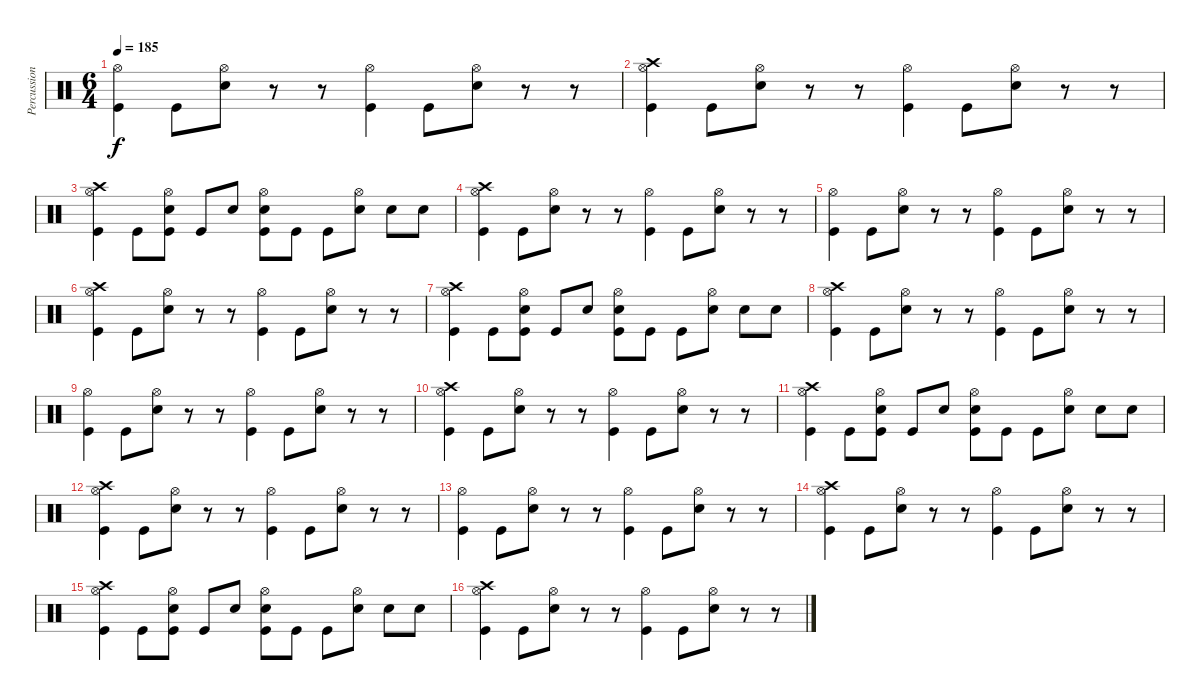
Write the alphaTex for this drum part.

\track ("Percussion" "Percussion") {instrument percussion}
\staff {score}
\articulation defaults
\ts (6 4)
\tempo 185
\clef neutral
\ks c
("Hi-Hat (open)" "Kick (hit)").4{dy f} "Kick (hit)".8 ("Hi-Hat (open)" "Electric Snare (hit)").8 r.8 r.8 ("Hi-Hat (open)" "Kick (hit)").4 "Kick (hit)".8 ("Hi-Hat (open)" "Electric Snare (hit)").8 r.8 r.8 |
("Crash high (hit)" "Hi-Hat (open)" "Kick (hit)").4 "Kick (hit)".8 ("Hi-Hat (open)" "Electric Snare (hit)").8 r.8 r.8 ("Hi-Hat (open)" "Kick (hit)").4 "Kick (hit)".8 ("Hi-Hat (open)" "Electric Snare (hit)").8 r.8 r.8 |
("Crash high (hit)" "Hi-Hat (open)" "Kick (hit)").4 "Kick (hit)".8 ("Hi-Hat (open)" "Electric Snare (hit)" "Kick (hit)").8 "Kick (hit)".8 "Electric Snare (hit)".8 ("Hi-Hat (open)" "Electric Snare (hit)" "Kick (hit)").8 "Kick (hit)".8 "Kick (hit)".8 ("Hi-Hat (open)" "Electric Snare (hit)").8 "Electric Snare (hit)".8 "Electric Snare (hit)".8 |
("Crash high (hit)" "Hi-Hat (open)" "Kick (hit)").4 "Kick (hit)".8 ("Hi-Hat (open)" "Electric Snare (hit)").8 r.8 r.8 ("Hi-Hat (open)" "Kick (hit)").4 "Kick (hit)".8 ("Hi-Hat (open)" "Electric Snare (hit)").8 r.8 r.8 |
("Hi-Hat (open)" "Kick (hit)").4 "Kick (hit)".8 ("Hi-Hat (open)" "Electric Snare (hit)").8 r.8 r.8 ("Hi-Hat (open)" "Kick (hit)").4 "Kick (hit)".8 ("Hi-Hat (open)" "Electric Snare (hit)").8 r.8 r.8 |
("Crash high (hit)" "Hi-Hat (open)" "Kick (hit)").4 "Kick (hit)".8 ("Hi-Hat (open)" "Electric Snare (hit)").8 r.8 r.8 ("Hi-Hat (open)" "Kick (hit)").4 "Kick (hit)".8 ("Hi-Hat (open)" "Electric Snare (hit)").8 r.8 r.8 |
("Crash high (hit)" "Hi-Hat (open)" "Kick (hit)").4 "Kick (hit)".8 ("Hi-Hat (open)" "Electric Snare (hit)" "Kick (hit)").8 "Kick (hit)".8 "Electric Snare (hit)".8 ("Hi-Hat (open)" "Electric Snare (hit)" "Kick (hit)").8 "Kick (hit)".8 "Kick (hit)".8 ("Hi-Hat (open)" "Electric Snare (hit)").8 "Electric Snare (hit)".8 "Electric Snare (hit)".8 |
("Crash high (hit)" "Hi-Hat (open)" "Kick (hit)").4 "Kick (hit)".8 ("Hi-Hat (open)" "Electric Snare (hit)").8 r.8 r.8 ("Hi-Hat (open)" "Kick (hit)").4 "Kick (hit)".8 ("Hi-Hat (open)" "Electric Snare (hit)").8 r.8 r.8 |
("Hi-Hat (open)" "Kick (hit)").4 "Kick (hit)".8 ("Hi-Hat (open)" "Electric Snare (hit)").8 r.8 r.8 ("Hi-Hat (open)" "Kick (hit)").4 "Kick (hit)".8 ("Hi-Hat (open)" "Electric Snare (hit)").8 r.8 r.8 |
("Crash high (hit)" "Hi-Hat (open)" "Kick (hit)").4 "Kick (hit)".8 ("Hi-Hat (open)" "Electric Snare (hit)").8 r.8 r.8 ("Hi-Hat (open)" "Kick (hit)").4 "Kick (hit)".8 ("Hi-Hat (open)" "Electric Snare (hit)").8 r.8 r.8 |
("Crash high (hit)" "Hi-Hat (open)" "Kick (hit)").4 "Kick (hit)".8 ("Hi-Hat (open)" "Electric Snare (hit)" "Kick (hit)").8 "Kick (hit)".8 "Electric Snare (hit)".8 ("Hi-Hat (open)" "Electric Snare (hit)" "Kick (hit)").8 "Kick (hit)".8 "Kick (hit)".8 ("Hi-Hat (open)" "Electric Snare (hit)").8 "Electric Snare (hit)".8 "Electric Snare (hit)".8 |
("Crash high (hit)" "Hi-Hat (open)" "Kick (hit)").4 "Kick (hit)".8 ("Hi-Hat (open)" "Electric Snare (hit)").8 r.8 r.8 ("Hi-Hat (open)" "Kick (hit)").4 "Kick (hit)".8 ("Hi-Hat (open)" "Electric Snare (hit)").8 r.8 r.8 |
("Hi-Hat (open)" "Kick (hit)").4 "Kick (hit)".8 ("Hi-Hat (open)" "Electric Snare (hit)").8 r.8 r.8 ("Hi-Hat (open)" "Kick (hit)").4 "Kick (hit)".8 ("Hi-Hat (open)" "Electric Snare (hit)").8 r.8 r.8 |
("Crash high (hit)" "Hi-Hat (open)" "Kick (hit)").4 "Kick (hit)".8 ("Hi-Hat (open)" "Electric Snare (hit)").8 r.8 r.8 ("Hi-Hat (open)" "Kick (hit)").4 "Kick (hit)".8 ("Hi-Hat (open)" "Electric Snare (hit)").8 r.8 r.8 |
("Crash high (hit)" "Hi-Hat (open)" "Kick (hit)").4 "Kick (hit)".8 ("Hi-Hat (open)" "Electric Snare (hit)" "Kick (hit)").8 "Kick (hit)".8 "Electric Snare (hit)".8 ("Hi-Hat (open)" "Electric Snare (hit)" "Kick (hit)").8 "Kick (hit)".8 "Kick (hit)".8 ("Hi-Hat (open)" "Electric Snare (hit)").8 "Electric Snare (hit)".8 "Electric Snare (hit)".8 |
("Crash high (hit)" "Hi-Hat (open)" "Kick (hit)").4 "Kick (hit)".8 ("Hi-Hat (open)" "Electric Snare (hit)").8 r.8 r.8 ("Hi-Hat (open)" "Kick (hit)").4 "Kick (hit)".8 ("Hi-Hat (open)" "Electric Snare (hit)").8 r.8 r.8
